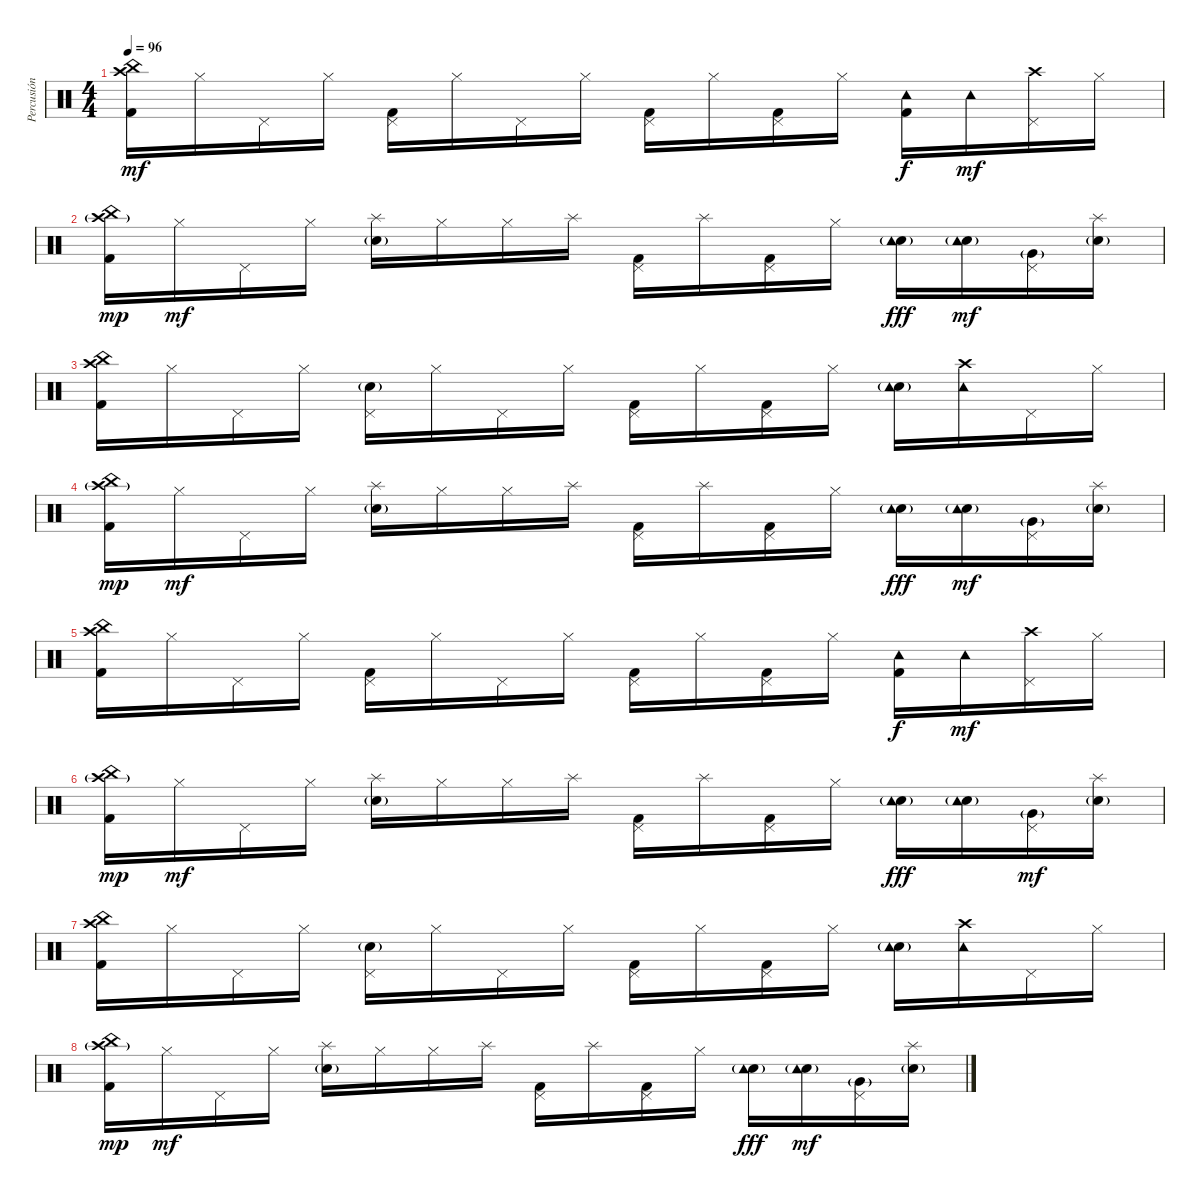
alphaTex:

\track ("Percusión" "Percusión") {instrument percussion}
\staff {score}
\articulation defaults
\ts (4 4)
\tempo 96
\clef neutral
\ks c
("China (hit)" "Kick (hit) 2" "Crash high (hit)").16{dy mf} "Hi-Hat (closed)".16 "Pedal Hi-Hat (hit)".16 "Hi-Hat (closed)".16 ("Kick (hit) 2" "Pedal Hi-Hat (hit)").16 "Hi-Hat (closed)".16 "Pedal Hi-Hat (hit)".16 "Hi-Hat (closed)".16 ("Kick (hit) 2" "Pedal Hi-Hat (hit)").16 "Hi-Hat (closed)".16 ("Kick (hit) 2" "Pedal Hi-Hat (hit)").16 "Hi-Hat (closed)".16 ("Kick (hit) 2" "Tambourine (hit)").16{dy f} "Tambourine (hit)".16{dy mf} ("Crash high (hit)" "Pedal Hi-Hat (hit)").16 "Hi-Hat (closed)".16 |
("China (hit)" "Kick (hit) 2" "Crash high (hit)"{g}).16{dy mp} "Hi-Hat (closed)".16{dy mf} "Pedal Hi-Hat (hit)".16 "Hi-Hat (closed)".16 ("Electric Snare (hit)"{g} "Splash (hit)").16 "Hi-Hat (closed)".16 "Hi-Hat (closed)".16 "Splash (hit)".16 ("Kick (hit) 2" "Pedal Hi-Hat (hit)").16 "Splash (hit)".16 ("Kick (hit) 2" "Pedal Hi-Hat (hit)").16 "Hi-Hat (closed)".16 ("Electric Snare (hit)"{g} "Tambourine (hit)").16{dy fff} ("Electric Snare (hit)"{g} "Tambourine (hit)").16{dy mf} ("Very Low Tom (hit)"{g} "Pedal Hi-Hat (hit)").16 ("Electric Snare (hit)"{g} "Splash (hit)").16 |
("China (hit)" "Kick (hit) 2" "Crash high (hit)").16 "Hi-Hat (closed)".16 "Pedal Hi-Hat (hit)".16 "Hi-Hat (closed)".16 ("Electric Snare (hit)"{g} "Pedal Hi-Hat (hit)").16 "Hi-Hat (closed)".16 "Pedal Hi-Hat (hit)".16 "Hi-Hat (closed)".16 ("Kick (hit) 2" "Pedal Hi-Hat (hit)").16 "Hi-Hat (closed)".16 ("Kick (hit) 2" "Pedal Hi-Hat (hit)").16 "Hi-Hat (closed)".16 ("Electric Snare (hit)"{g} "Tambourine (hit)").16 ("Crash high (hit)" "Tambourine (hit)").16 "Pedal Hi-Hat (hit)".16 "Hi-Hat (closed)".16 |
("China (hit)" "Kick (hit) 2" "Crash high (hit)"{g}).16{dy mp} "Hi-Hat (closed)".16{dy mf} "Pedal Hi-Hat (hit)".16 "Hi-Hat (closed)".16 ("Electric Snare (hit)"{g} "Splash (hit)").16 "Hi-Hat (closed)".16 "Hi-Hat (closed)".16 "Splash (hit)".16 ("Kick (hit) 2" "Pedal Hi-Hat (hit)").16 "Splash (hit)".16 ("Kick (hit) 2" "Pedal Hi-Hat (hit)").16 "Hi-Hat (closed)".16 ("Electric Snare (hit)"{g} "Tambourine (hit)").16{dy fff} ("Electric Snare (hit)"{g} "Tambourine (hit)").16{dy mf} ("Very Low Tom (hit)"{g} "Pedal Hi-Hat (hit)").16 ("Electric Snare (hit)"{g} "Splash (hit)").16 |
("China (hit)" "Kick (hit) 2" "Crash high (hit)").16 "Hi-Hat (closed)".16 "Pedal Hi-Hat (hit)".16 "Hi-Hat (closed)".16 ("Kick (hit) 2" "Pedal Hi-Hat (hit)").16 "Hi-Hat (closed)".16 "Pedal Hi-Hat (hit)".16 "Hi-Hat (closed)".16 ("Kick (hit) 2" "Pedal Hi-Hat (hit)").16 "Hi-Hat (closed)".16 ("Kick (hit) 2" "Pedal Hi-Hat (hit)").16 "Hi-Hat (closed)".16 ("Kick (hit) 2" "Tambourine (hit)").16{dy f} "Tambourine (hit)".16{dy mf} ("Crash high (hit)" "Pedal Hi-Hat (hit)").16 "Hi-Hat (closed)".16 |
("China (hit)" "Kick (hit) 2" "Crash high (hit)"{g}).16{dy mp} "Hi-Hat (closed)".16{dy mf} "Pedal Hi-Hat (hit)".16 "Hi-Hat (closed)".16 ("Electric Snare (hit)"{g} "Splash (hit)").16 "Hi-Hat (closed)".16 "Hi-Hat (closed)".16 "Splash (hit)".16 ("Kick (hit) 2" "Pedal Hi-Hat (hit)").16 "Splash (hit)".16 ("Kick (hit) 2" "Pedal Hi-Hat (hit)").16 "Hi-Hat (closed)".16 ("Electric Snare (hit)"{g} "Tambourine (hit)").16{dy fff} ("Electric Snare (hit)"{g} "Tambourine (hit)").16 ("Very Low Tom (hit)"{g} "Pedal Hi-Hat (hit)").16{dy mf} ("Electric Snare (hit)"{g} "Splash (hit)").16 |
("China (hit)" "Kick (hit) 2" "Crash high (hit)").16 "Hi-Hat (closed)".16 "Pedal Hi-Hat (hit)".16 "Hi-Hat (closed)".16 ("Electric Snare (hit)"{g} "Pedal Hi-Hat (hit)").16 "Hi-Hat (closed)".16 "Pedal Hi-Hat (hit)".16 "Hi-Hat (closed)".16 ("Kick (hit) 2" "Pedal Hi-Hat (hit)").16 "Hi-Hat (closed)".16 ("Kick (hit) 2" "Pedal Hi-Hat (hit)").16 "Hi-Hat (closed)".16 ("Electric Snare (hit)"{g} "Tambourine (hit)").16 ("Crash high (hit)" "Tambourine (hit)").16 "Pedal Hi-Hat (hit)".16 "Hi-Hat (closed)".16 |
("China (hit)" "Kick (hit) 2" "Crash high (hit)"{g}).16{dy mp} "Hi-Hat (closed)".16{dy mf} "Pedal Hi-Hat (hit)".16 "Hi-Hat (closed)".16 ("Electric Snare (hit)"{g} "Splash (hit)").16 "Hi-Hat (closed)".16 "Hi-Hat (closed)".16 "Splash (hit)".16 ("Kick (hit) 2" "Pedal Hi-Hat (hit)").16 "Splash (hit)".16 ("Kick (hit) 2" "Pedal Hi-Hat (hit)").16 "Hi-Hat (closed)".16 ("Electric Snare (hit)"{g} "Tambourine (hit)").16{dy fff} ("Electric Snare (hit)"{g} "Tambourine (hit)").16{dy mf} ("Very Low Tom (hit)"{g} "Pedal Hi-Hat (hit)").16 ("Electric Snare (hit)"{g} "Splash (hit)").16
